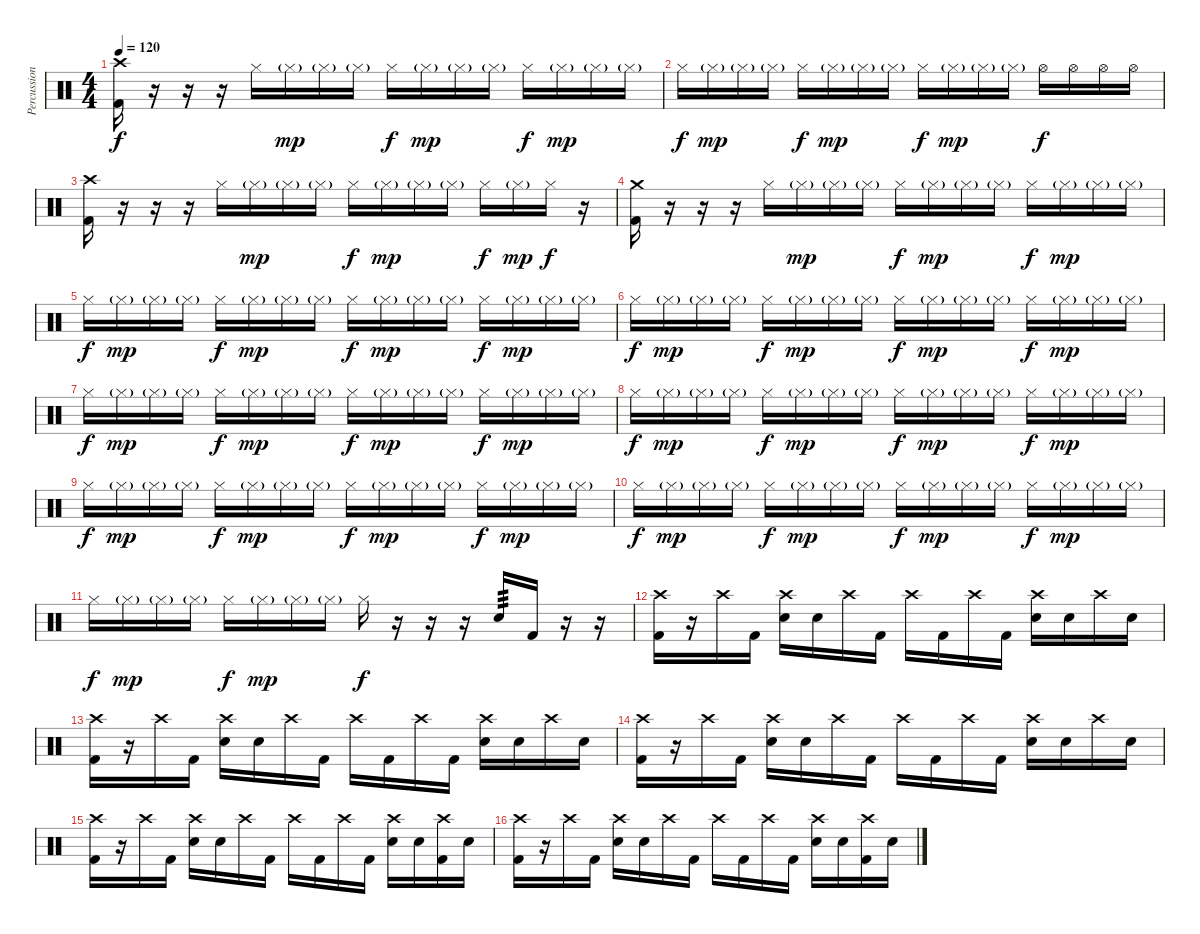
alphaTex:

\track ("Percussion" "Percussion") {instrument percussion}
\staff {score}
\articulation defaults
\ts (4 4)
\tempo 120
\clef neutral
\ks c
("Crash high (hit)" "Kick (hit) 2").16{dy f} r.16 r.16 r.16 "Hi-Hat (closed)".16 "Hi-Hat (closed)"{g}.16{dy mp} "Hi-Hat (closed)"{g}.16 "Hi-Hat (closed)"{g}.16 "Hi-Hat (closed)".16{dy f} "Hi-Hat (closed)"{g}.16{dy mp} "Hi-Hat (closed)"{g}.16 "Hi-Hat (closed)"{g}.16 "Hi-Hat (closed)".16{dy f} "Hi-Hat (closed)"{g}.16{dy mp} "Hi-Hat (closed)"{g}.16 "Hi-Hat (closed)"{g}.16 |
"Hi-Hat (closed)".16{dy f} "Hi-Hat (closed)"{g}.16{dy mp} "Hi-Hat (closed)"{g}.16 "Hi-Hat (closed)"{g}.16 "Hi-Hat (closed)".16{dy f} "Hi-Hat (closed)"{g}.16{dy mp} "Hi-Hat (closed)"{g}.16 "Hi-Hat (closed)"{g}.16 "Hi-Hat (closed)".16{dy f} "Hi-Hat (closed)"{g}.16{dy mp} "Hi-Hat (closed)"{g}.16 "Hi-Hat (closed)"{g}.16 "Hi-Hat (open)".16{dy f} "Hi-Hat (open)".16 "Hi-Hat (open)".16 "Hi-Hat (open)".16 |
("Crash high (hit)" "Kick (hit) 2").16 r.16 r.16 r.16 "Hi-Hat (closed)".16 "Hi-Hat (closed)"{g}.16{dy mp} "Hi-Hat (closed)"{g}.16 "Hi-Hat (closed)"{g}.16 "Hi-Hat (closed)".16{dy f} "Hi-Hat (closed)"{g}.16{dy mp} "Hi-Hat (closed)"{g}.16 "Hi-Hat (closed)"{g}.16 "Hi-Hat (closed)".16{dy f} "Hi-Hat (closed)"{g}.16{dy mp} "Hi-Hat (closed)".16{dy f} r.16 |
("Crash medium (hit)" "Kick (hit) 2").16 r.16 r.16 r.16 "Hi-Hat (closed)".16 "Hi-Hat (closed)"{g}.16{dy mp} "Hi-Hat (closed)"{g}.16 "Hi-Hat (closed)"{g}.16 "Hi-Hat (closed)".16{dy f} "Hi-Hat (closed)"{g}.16{dy mp} "Hi-Hat (closed)"{g}.16 "Hi-Hat (closed)"{g}.16 "Hi-Hat (closed)".16{dy f} "Hi-Hat (closed)"{g}.16{dy mp} "Hi-Hat (closed)"{g}.16 "Hi-Hat (closed)"{g}.16 |
"Hi-Hat (closed)".16{dy f} "Hi-Hat (closed)"{g}.16{dy mp} "Hi-Hat (closed)"{g}.16 "Hi-Hat (closed)"{g}.16 "Hi-Hat (closed)".16{dy f} "Hi-Hat (closed)"{g}.16{dy mp} "Hi-Hat (closed)"{g}.16 "Hi-Hat (closed)"{g}.16 "Hi-Hat (closed)".16{dy f} "Hi-Hat (closed)"{g}.16{dy mp} "Hi-Hat (closed)"{g}.16 "Hi-Hat (closed)"{g}.16 "Hi-Hat (closed)".16{dy f} "Hi-Hat (closed)"{g}.16{dy mp} "Hi-Hat (closed)"{g}.16 "Hi-Hat (closed)"{g}.16 |
"Hi-Hat (closed)".16{dy f} "Hi-Hat (closed)"{g}.16{dy mp} "Hi-Hat (closed)"{g}.16 "Hi-Hat (closed)"{g}.16 "Hi-Hat (closed)".16{dy f} "Hi-Hat (closed)"{g}.16{dy mp} "Hi-Hat (closed)"{g}.16 "Hi-Hat (closed)"{g}.16 "Hi-Hat (closed)".16{dy f} "Hi-Hat (closed)"{g}.16{dy mp} "Hi-Hat (closed)"{g}.16 "Hi-Hat (closed)"{g}.16 "Hi-Hat (closed)".16{dy f} "Hi-Hat (closed)"{g}.16{dy mp} "Hi-Hat (closed)"{g}.16 "Hi-Hat (closed)"{g}.16 |
"Hi-Hat (closed)".16{dy f} "Hi-Hat (closed)"{g}.16{dy mp} "Hi-Hat (closed)"{g}.16 "Hi-Hat (closed)"{g}.16 "Hi-Hat (closed)".16{dy f} "Hi-Hat (closed)"{g}.16{dy mp} "Hi-Hat (closed)"{g}.16 "Hi-Hat (closed)"{g}.16 "Hi-Hat (closed)".16{dy f} "Hi-Hat (closed)"{g}.16{dy mp} "Hi-Hat (closed)"{g}.16 "Hi-Hat (closed)"{g}.16 "Hi-Hat (closed)".16{dy f} "Hi-Hat (closed)"{g}.16{dy mp} "Hi-Hat (closed)"{g}.16 "Hi-Hat (closed)"{g}.16 |
"Hi-Hat (closed)".16{dy f} "Hi-Hat (closed)"{g}.16{dy mp} "Hi-Hat (closed)"{g}.16 "Hi-Hat (closed)"{g}.16 "Hi-Hat (closed)".16{dy f} "Hi-Hat (closed)"{g}.16{dy mp} "Hi-Hat (closed)"{g}.16 "Hi-Hat (closed)"{g}.16 "Hi-Hat (closed)".16{dy f} "Hi-Hat (closed)"{g}.16{dy mp} "Hi-Hat (closed)"{g}.16 "Hi-Hat (closed)"{g}.16 "Hi-Hat (closed)".16{dy f} "Hi-Hat (closed)"{g}.16{dy mp} "Hi-Hat (closed)"{g}.16 "Hi-Hat (closed)"{g}.16 |
"Hi-Hat (closed)".16{dy f} "Hi-Hat (closed)"{g}.16{dy mp} "Hi-Hat (closed)"{g}.16 "Hi-Hat (closed)"{g}.16 "Hi-Hat (closed)".16{dy f} "Hi-Hat (closed)"{g}.16{dy mp} "Hi-Hat (closed)"{g}.16 "Hi-Hat (closed)"{g}.16 "Hi-Hat (closed)".16{dy f} "Hi-Hat (closed)"{g}.16{dy mp} "Hi-Hat (closed)"{g}.16 "Hi-Hat (closed)"{g}.16 "Hi-Hat (closed)".16{dy f} "Hi-Hat (closed)"{g}.16{dy mp} "Hi-Hat (closed)"{g}.16 "Hi-Hat (closed)"{g}.16 |
"Hi-Hat (closed)".16{dy f} "Hi-Hat (closed)"{g}.16{dy mp} "Hi-Hat (closed)"{g}.16 "Hi-Hat (closed)"{g}.16 "Hi-Hat (closed)".16{dy f} "Hi-Hat (closed)"{g}.16{dy mp} "Hi-Hat (closed)"{g}.16 "Hi-Hat (closed)"{g}.16 "Hi-Hat (closed)".16{dy f} "Hi-Hat (closed)"{g}.16{dy mp} "Hi-Hat (closed)"{g}.16 "Hi-Hat (closed)"{g}.16 "Hi-Hat (closed)".16{dy f} "Hi-Hat (closed)"{g}.16{dy mp} "Hi-Hat (closed)"{g}.16 "Hi-Hat (closed)"{g}.16 |
"Hi-Hat (closed)".16{dy f} "Hi-Hat (closed)"{g}.16{dy mp} "Hi-Hat (closed)"{g}.16 "Hi-Hat (closed)"{g}.16 "Hi-Hat (closed)".16{dy f} "Hi-Hat (closed)"{g}.16{dy mp} "Hi-Hat (closed)"{g}.16 "Hi-Hat (closed)"{g}.16 "Hi-Hat (closed)".16{dy f} r.16 r.16 r.16 "Electric Snare (hit)".16{tp 3} "Kick (hit) 2".16 r.16 r.16 |
("Crash high (hit)" "Kick (hit) 2").16 r.16 "Crash high (hit)".16 "Kick (hit) 2".16 ("Crash high (hit)" "Electric Snare (hit)").16 "Electric Snare (hit)".16 "Crash high (hit)".16 "Kick (hit) 2".16 "Crash high (hit)".16 "Kick (hit) 2".16 "Crash high (hit)".16 "Kick (hit) 2".16 ("Crash high (hit)" "Electric Snare (hit)").16 "Electric Snare (hit)".16 "Crash high (hit)".16 "Electric Snare (hit)".16 |
("Crash high (hit)" "Kick (hit) 2").16 r.16 "Crash high (hit)".16 "Kick (hit) 2".16 ("Crash high (hit)" "Electric Snare (hit)").16 "Electric Snare (hit)".16 "Crash high (hit)".16 "Kick (hit) 2".16 "Crash high (hit)".16 "Kick (hit) 2".16 "Crash high (hit)".16 "Kick (hit) 2".16 ("Crash high (hit)" "Electric Snare (hit)").16 "Electric Snare (hit)".16 "Crash high (hit)".16 "Electric Snare (hit)".16 |
("Crash high (hit)" "Kick (hit) 2").16 r.16 "Crash high (hit)".16 "Kick (hit) 2".16 ("Crash high (hit)" "Electric Snare (hit)").16 "Electric Snare (hit)".16 "Crash high (hit)".16 "Kick (hit) 2".16 "Crash high (hit)".16 "Kick (hit) 2".16 "Crash high (hit)".16 "Kick (hit) 2".16 ("Crash high (hit)" "Electric Snare (hit)").16 "Electric Snare (hit)".16 "Crash high (hit)".16 "Electric Snare (hit)".16 |
("Crash high (hit)" "Kick (hit) 2").16 r.16 "Crash high (hit)".16 "Kick (hit) 2".16 ("Crash high (hit)" "Electric Snare (hit)").16 "Electric Snare (hit)".16 "Crash high (hit)".16 "Kick (hit) 2".16 "Crash high (hit)".16 "Kick (hit) 2".16 "Crash high (hit)".16 "Kick (hit) 2".16 ("Crash high (hit)" "Electric Snare (hit)").16 "Electric Snare (hit)".16 ("Crash high (hit)" "Kick (hit) 2").16 "Electric Snare (hit)".16 |
("Crash high (hit)" "Kick (hit) 2").16 r.16 "Crash high (hit)".16 "Kick (hit) 2".16 ("Crash high (hit)" "Electric Snare (hit)").16 "Electric Snare (hit)".16 "Crash high (hit)".16 "Kick (hit) 2".16 "Crash high (hit)".16 "Kick (hit) 2".16 "Crash high (hit)".16 "Kick (hit) 2".16 ("Crash high (hit)" "Electric Snare (hit)").16 "Electric Snare (hit)".16 ("Crash high (hit)" "Kick (hit) 2").16 "Electric Snare (hit)".16
